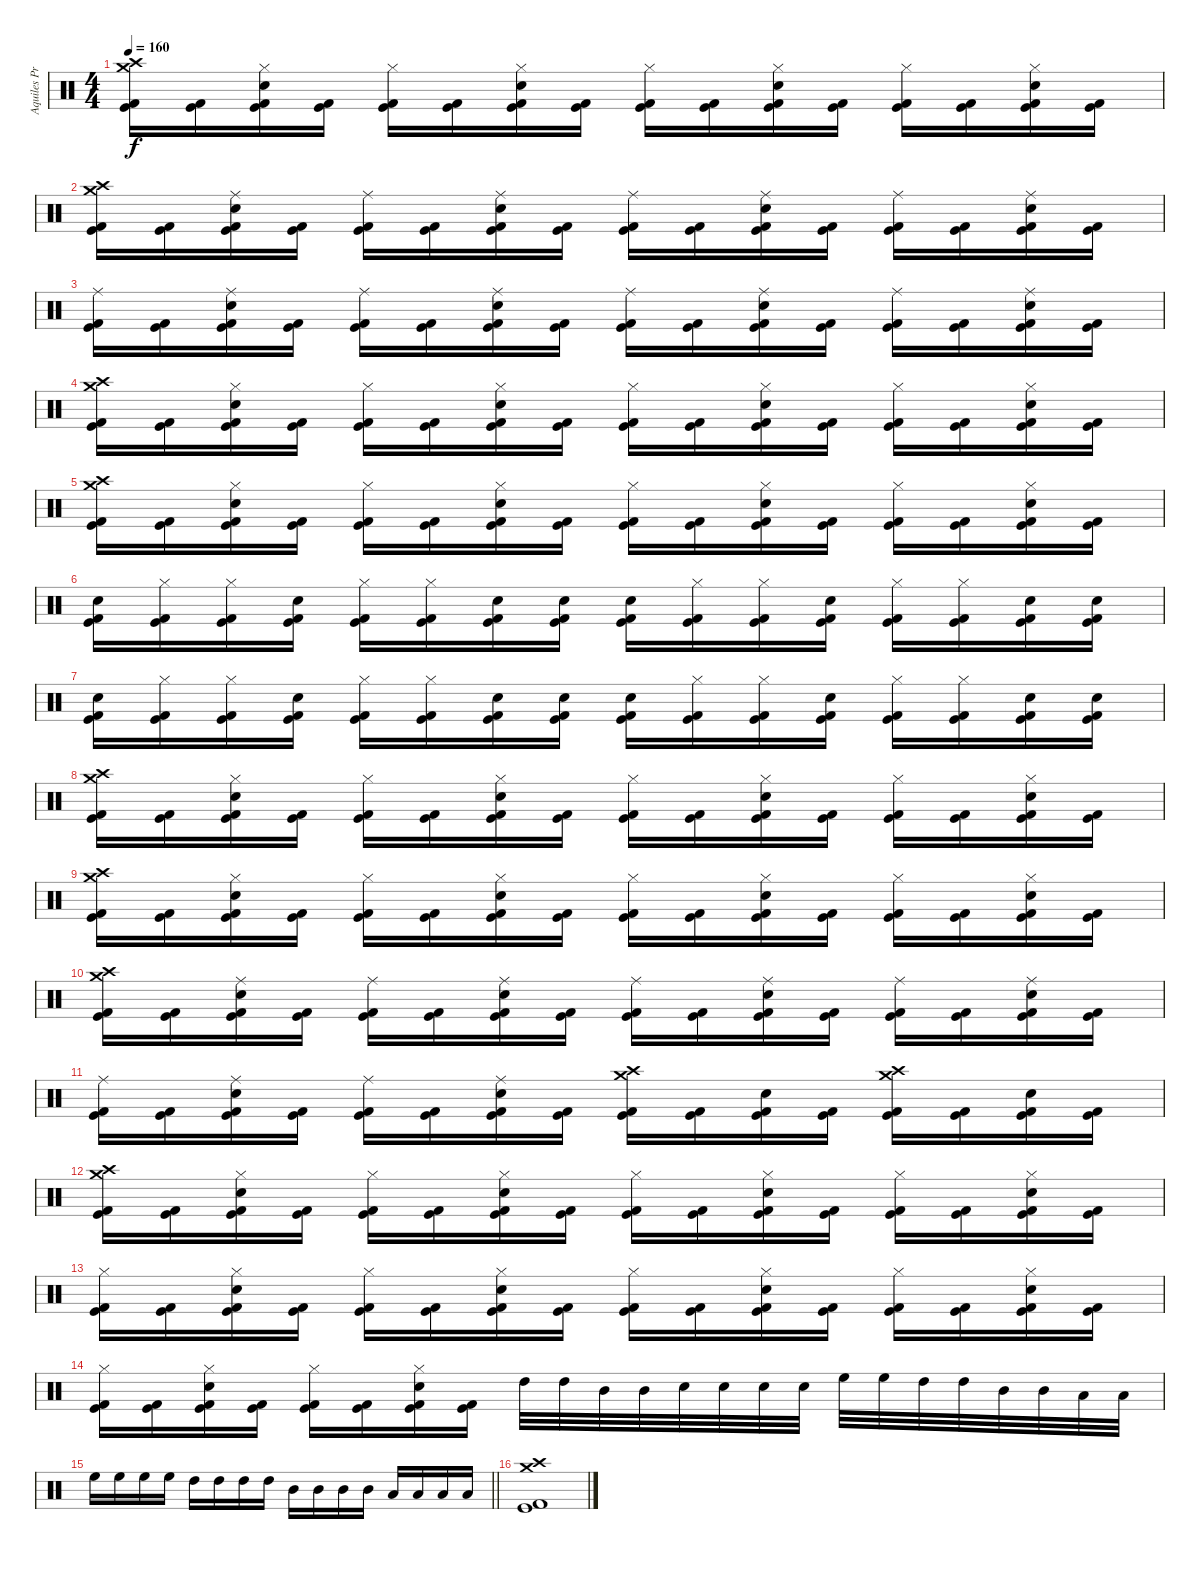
\track ("Aquiles Priester" "Aquiles Pr") {instrument percussion}
\staff {score}
\articulation defaults
\ts (4 4)
\tempo 160
\clef neutral
\ks c
("Crash medium (hit)" "Crash high (hit)" "Kick (hit) 2" "Kick (hit)").16{dy f} ("Kick (hit) 2" "Kick (hit)").16 ("Hi-Hat (closed)" "Electric Snare (hit)" "Kick (hit) 2" "Kick (hit)").16 ("Kick (hit) 2" "Kick (hit)").16 ("Hi-Hat (closed)" "Kick (hit) 2" "Kick (hit)").16 ("Kick (hit) 2" "Kick (hit)").16 ("Hi-Hat (closed)" "Electric Snare (hit)" "Kick (hit) 2" "Kick (hit)").16 ("Kick (hit) 2" "Kick (hit)").16 ("Hi-Hat (closed)" "Kick (hit) 2" "Kick (hit)").16 ("Kick (hit) 2" "Kick (hit)").16 ("Hi-Hat (closed)" "Electric Snare (hit)" "Kick (hit) 2" "Kick (hit)").16 ("Kick (hit) 2" "Kick (hit)").16 ("Hi-Hat (closed)" "Kick (hit) 2" "Kick (hit)").16 ("Kick (hit) 2" "Kick (hit)").16 ("Hi-Hat (closed)" "Electric Snare (hit)" "Kick (hit) 2" "Kick (hit)").16 ("Kick (hit) 2" "Kick (hit)").16 |
("Crash medium (hit)" "Crash high (hit)" "Kick (hit) 2" "Kick (hit)").16 ("Kick (hit) 2" "Kick (hit)").16 ("Ride (middle)" "Electric Snare (hit)" "Kick (hit) 2" "Kick (hit)").16 ("Kick (hit) 2" "Kick (hit)").16 ("Ride (middle)" "Kick (hit) 2" "Kick (hit)").16 ("Kick (hit) 2" "Kick (hit)").16 ("Ride (middle)" "Electric Snare (hit)" "Kick (hit) 2" "Kick (hit)").16 ("Kick (hit) 2" "Kick (hit)").16 ("Ride (middle)" "Kick (hit) 2" "Kick (hit)").16 ("Kick (hit) 2" "Kick (hit)").16 ("Ride (middle)" "Electric Snare (hit)" "Kick (hit) 2" "Kick (hit)").16 ("Kick (hit) 2" "Kick (hit)").16 ("Ride (middle)" "Kick (hit) 2" "Kick (hit)").16 ("Kick (hit) 2" "Kick (hit)").16 ("Ride (middle)" "Electric Snare (hit)" "Kick (hit) 2" "Kick (hit)").16 ("Kick (hit) 2" "Kick (hit)").16 |
("Ride (middle)" "Kick (hit) 2" "Kick (hit)").16 ("Kick (hit) 2" "Kick (hit)").16 ("Ride (middle)" "Electric Snare (hit)" "Kick (hit) 2" "Kick (hit)").16 ("Kick (hit) 2" "Kick (hit)").16 ("Ride (middle)" "Kick (hit) 2" "Kick (hit)").16 ("Kick (hit) 2" "Kick (hit)").16 ("Ride (middle)" "Electric Snare (hit)" "Kick (hit) 2" "Kick (hit)").16 ("Kick (hit) 2" "Kick (hit)").16 ("Ride (middle)" "Kick (hit) 2" "Kick (hit)").16 ("Kick (hit) 2" "Kick (hit)").16 ("Ride (middle)" "Electric Snare (hit)" "Kick (hit) 2" "Kick (hit)").16 ("Kick (hit) 2" "Kick (hit)").16 ("Ride (middle)" "Kick (hit) 2" "Kick (hit)").16 ("Kick (hit) 2" "Kick (hit)").16 ("Ride (middle)" "Electric Snare (hit)" "Kick (hit) 2" "Kick (hit)").16 ("Kick (hit) 2" "Kick (hit)").16 |
("Crash medium (hit)" "Crash high (hit)" "Kick (hit) 2" "Kick (hit)").16 ("Kick (hit) 2" "Kick (hit)").16 ("Hi-Hat (closed)" "Electric Snare (hit)" "Kick (hit) 2" "Kick (hit)").16 ("Kick (hit) 2" "Kick (hit)").16 ("Hi-Hat (closed)" "Kick (hit) 2" "Kick (hit)").16 ("Kick (hit) 2" "Kick (hit)").16 ("Hi-Hat (closed)" "Electric Snare (hit)" "Kick (hit) 2" "Kick (hit)").16 ("Kick (hit) 2" "Kick (hit)").16 ("Hi-Hat (closed)" "Kick (hit) 2" "Kick (hit)").16 ("Kick (hit) 2" "Kick (hit)").16 ("Hi-Hat (closed)" "Electric Snare (hit)" "Kick (hit) 2" "Kick (hit)").16 ("Kick (hit) 2" "Kick (hit)").16 ("Hi-Hat (closed)" "Kick (hit) 2" "Kick (hit)").16 ("Kick (hit) 2" "Kick (hit)").16 ("Hi-Hat (closed)" "Electric Snare (hit)" "Kick (hit) 2" "Kick (hit)").16 ("Kick (hit) 2" "Kick (hit)").16 |
("Crash medium (hit)" "Crash high (hit)" "Kick (hit) 2" "Kick (hit)").16 ("Kick (hit) 2" "Kick (hit)").16 ("Hi-Hat (closed)" "Electric Snare (hit)" "Kick (hit) 2" "Kick (hit)").16 ("Kick (hit) 2" "Kick (hit)").16 ("Hi-Hat (closed)" "Kick (hit) 2" "Kick (hit)").16 ("Kick (hit) 2" "Kick (hit)").16 ("Hi-Hat (closed)" "Electric Snare (hit)" "Kick (hit) 2" "Kick (hit)").16 ("Kick (hit) 2" "Kick (hit)").16 ("Hi-Hat (closed)" "Kick (hit) 2" "Kick (hit)").16 ("Kick (hit) 2" "Kick (hit)").16 ("Hi-Hat (closed)" "Electric Snare (hit)" "Kick (hit) 2" "Kick (hit)").16 ("Kick (hit) 2" "Kick (hit)").16 ("Hi-Hat (closed)" "Kick (hit) 2" "Kick (hit)").16 ("Kick (hit) 2" "Kick (hit)").16 ("Hi-Hat (closed)" "Electric Snare (hit)" "Kick (hit) 2" "Kick (hit)").16 ("Kick (hit) 2" "Kick (hit)").16 |
("Electric Snare (hit)" "Kick (hit) 2" "Kick (hit)").16 ("Hi-Hat (closed)" "Kick (hit) 2" "Kick (hit)").16 ("Hi-Hat (closed)" "Kick (hit) 2" "Kick (hit)").16 ("Electric Snare (hit)" "Kick (hit) 2" "Kick (hit)").16 ("Hi-Hat (closed)" "Kick (hit) 2" "Kick (hit)").16 ("Hi-Hat (closed)" "Kick (hit) 2" "Kick (hit)").16 ("Electric Snare (hit)" "Kick (hit) 2" "Kick (hit)").16 ("Electric Snare (hit)" "Kick (hit) 2" "Kick (hit)").16 ("Electric Snare (hit)" "Kick (hit) 2" "Kick (hit)").16 ("Hi-Hat (closed)" "Kick (hit) 2" "Kick (hit)").16 ("Hi-Hat (closed)" "Kick (hit) 2" "Kick (hit)").16 ("Electric Snare (hit)" "Kick (hit) 2" "Kick (hit)").16 ("Hi-Hat (closed)" "Kick (hit) 2" "Kick (hit)").16 ("Hi-Hat (closed)" "Kick (hit) 2" "Kick (hit)").16 ("Electric Snare (hit)" "Kick (hit) 2" "Kick (hit)").16 ("Electric Snare (hit)" "Kick (hit) 2" "Kick (hit)").16 |
("Electric Snare (hit)" "Kick (hit) 2" "Kick (hit)").16 ("Hi-Hat (closed)" "Kick (hit) 2" "Kick (hit)").16 ("Hi-Hat (closed)" "Kick (hit) 2" "Kick (hit)").16 ("Electric Snare (hit)" "Kick (hit) 2" "Kick (hit)").16 ("Hi-Hat (closed)" "Kick (hit) 2" "Kick (hit)").16 ("Hi-Hat (closed)" "Kick (hit) 2" "Kick (hit)").16 ("Electric Snare (hit)" "Kick (hit) 2" "Kick (hit)").16 ("Electric Snare (hit)" "Kick (hit) 2" "Kick (hit)").16 ("Electric Snare (hit)" "Kick (hit) 2" "Kick (hit)").16 ("Hi-Hat (closed)" "Kick (hit) 2" "Kick (hit)").16 ("Hi-Hat (closed)" "Kick (hit) 2" "Kick (hit)").16 ("Electric Snare (hit)" "Kick (hit) 2" "Kick (hit)").16 ("Hi-Hat (closed)" "Kick (hit) 2" "Kick (hit)").16 ("Hi-Hat (closed)" "Kick (hit) 2" "Kick (hit)").16 ("Electric Snare (hit)" "Kick (hit) 2" "Kick (hit)").16 ("Electric Snare (hit)" "Kick (hit) 2" "Kick (hit)").16 |
("Crash medium (hit)" "Crash high (hit)" "Kick (hit) 2" "Kick (hit)").16 ("Kick (hit) 2" "Kick (hit)").16 ("Hi-Hat (closed)" "Electric Snare (hit)" "Kick (hit) 2" "Kick (hit)").16 ("Kick (hit) 2" "Kick (hit)").16 ("Hi-Hat (closed)" "Kick (hit) 2" "Kick (hit)").16 ("Kick (hit) 2" "Kick (hit)").16 ("Hi-Hat (closed)" "Electric Snare (hit)" "Kick (hit) 2" "Kick (hit)").16 ("Kick (hit) 2" "Kick (hit)").16 ("Hi-Hat (closed)" "Kick (hit) 2" "Kick (hit)").16 ("Kick (hit) 2" "Kick (hit)").16 ("Hi-Hat (closed)" "Electric Snare (hit)" "Kick (hit) 2" "Kick (hit)").16 ("Kick (hit) 2" "Kick (hit)").16 ("Hi-Hat (closed)" "Kick (hit) 2" "Kick (hit)").16 ("Kick (hit) 2" "Kick (hit)").16 ("Hi-Hat (closed)" "Electric Snare (hit)" "Kick (hit) 2" "Kick (hit)").16 ("Kick (hit) 2" "Kick (hit)").16 |
("Crash medium (hit)" "Crash high (hit)" "Kick (hit) 2" "Kick (hit)").16 ("Kick (hit) 2" "Kick (hit)").16 ("Hi-Hat (closed)" "Electric Snare (hit)" "Kick (hit) 2" "Kick (hit)").16 ("Kick (hit) 2" "Kick (hit)").16 ("Hi-Hat (closed)" "Kick (hit) 2" "Kick (hit)").16 ("Kick (hit) 2" "Kick (hit)").16 ("Hi-Hat (closed)" "Electric Snare (hit)" "Kick (hit) 2" "Kick (hit)").16 ("Kick (hit) 2" "Kick (hit)").16 ("Hi-Hat (closed)" "Kick (hit) 2" "Kick (hit)").16 ("Kick (hit) 2" "Kick (hit)").16 ("Hi-Hat (closed)" "Electric Snare (hit)" "Kick (hit) 2" "Kick (hit)").16 ("Kick (hit) 2" "Kick (hit)").16 ("Hi-Hat (closed)" "Kick (hit) 2" "Kick (hit)").16 ("Kick (hit) 2" "Kick (hit)").16 ("Hi-Hat (closed)" "Electric Snare (hit)" "Kick (hit) 2" "Kick (hit)").16 ("Kick (hit) 2" "Kick (hit)").16 |
("Crash medium (hit)" "Crash high (hit)" "Kick (hit) 2" "Kick (hit)").16 ("Kick (hit) 2" "Kick (hit)").16 ("Ride (middle)" "Electric Snare (hit)" "Kick (hit) 2" "Kick (hit)").16 ("Kick (hit) 2" "Kick (hit)").16 ("Ride (middle)" "Kick (hit) 2" "Kick (hit)").16 ("Kick (hit) 2" "Kick (hit)").16 ("Ride (middle)" "Electric Snare (hit)" "Kick (hit) 2" "Kick (hit)").16 ("Kick (hit) 2" "Kick (hit)").16 ("Ride (middle)" "Kick (hit) 2" "Kick (hit)").16 ("Kick (hit) 2" "Kick (hit)").16 ("Ride (middle)" "Electric Snare (hit)" "Kick (hit) 2" "Kick (hit)").16 ("Kick (hit) 2" "Kick (hit)").16 ("Ride (middle)" "Kick (hit) 2" "Kick (hit)").16 ("Kick (hit) 2" "Kick (hit)").16 ("Ride (middle)" "Electric Snare (hit)" "Kick (hit) 2" "Kick (hit)").16 ("Kick (hit) 2" "Kick (hit)").16 |
("Ride (middle)" "Kick (hit) 2" "Kick (hit)").16 ("Kick (hit) 2" "Kick (hit)").16 ("Ride (middle)" "Electric Snare (hit)" "Kick (hit) 2" "Kick (hit)").16 ("Kick (hit) 2" "Kick (hit)").16 ("Ride (middle)" "Kick (hit) 2" "Kick (hit)").16 ("Kick (hit) 2" "Kick (hit)").16 ("Ride (middle)" "Electric Snare (hit)" "Kick (hit) 2" "Kick (hit)").16 ("Kick (hit) 2" "Kick (hit)").16 ("Crash medium (hit)" "Crash high (hit)" "Kick (hit) 2" "Kick (hit)").16 ("Kick (hit) 2" "Kick (hit)").16 ("Electric Snare (hit)" "Kick (hit) 2" "Kick (hit)").16 ("Kick (hit) 2" "Kick (hit)").16 ("Crash medium (hit)" "Crash high (hit)" "Kick (hit) 2" "Kick (hit)").16 ("Kick (hit) 2" "Kick (hit)").16 ("Electric Snare (hit)" "Kick (hit) 2" "Kick (hit)").16 ("Kick (hit) 2" "Kick (hit)").16 |
("Crash medium (hit)" "Crash high (hit)" "Kick (hit) 2" "Kick (hit)").16 ("Kick (hit) 2" "Kick (hit)").16 ("Hi-Hat (closed)" "Electric Snare (hit)" "Kick (hit) 2" "Kick (hit)").16 ("Kick (hit) 2" "Kick (hit)").16 ("Hi-Hat (closed)" "Kick (hit) 2" "Kick (hit)").16 ("Kick (hit) 2" "Kick (hit)").16 ("Hi-Hat (closed)" "Electric Snare (hit)" "Kick (hit) 2" "Kick (hit)").16 ("Kick (hit) 2" "Kick (hit)").16 ("Hi-Hat (closed)" "Kick (hit) 2" "Kick (hit)").16 ("Kick (hit) 2" "Kick (hit)").16 ("Hi-Hat (closed)" "Electric Snare (hit)" "Kick (hit) 2" "Kick (hit)").16 ("Kick (hit) 2" "Kick (hit)").16 ("Hi-Hat (closed)" "Kick (hit) 2" "Kick (hit)").16 ("Kick (hit) 2" "Kick (hit)").16 ("Hi-Hat (closed)" "Electric Snare (hit)" "Kick (hit) 2" "Kick (hit)").16 ("Kick (hit) 2" "Kick (hit)").16 |
("Hi-Hat (closed)" "Kick (hit) 2" "Kick (hit)").16 ("Kick (hit) 2" "Kick (hit)").16 ("Hi-Hat (closed)" "Electric Snare (hit)" "Kick (hit) 2" "Kick (hit)").16 ("Kick (hit) 2" "Kick (hit)").16 ("Hi-Hat (closed)" "Kick (hit) 2" "Kick (hit)").16 ("Kick (hit) 2" "Kick (hit)").16 ("Hi-Hat (closed)" "Electric Snare (hit)" "Kick (hit) 2" "Kick (hit)").16 ("Kick (hit) 2" "Kick (hit)").16 ("Hi-Hat (closed)" "Kick (hit) 2" "Kick (hit)").16 ("Kick (hit) 2" "Kick (hit)").16 ("Hi-Hat (closed)" "Electric Snare (hit)" "Kick (hit) 2" "Kick (hit)").16 ("Kick (hit) 2" "Kick (hit)").16 ("Hi-Hat (closed)" "Kick (hit) 2" "Kick (hit)").16 ("Kick (hit) 2" "Kick (hit)").16 ("Hi-Hat (closed)" "Electric Snare (hit)" "Kick (hit) 2" "Kick (hit)").16 ("Kick (hit) 2" "Kick (hit)").16 |
("Hi-Hat (closed)" "Kick (hit) 2" "Kick (hit)").16 ("Kick (hit) 2" "Kick (hit)").16 ("Hi-Hat (closed)" "Electric Snare (hit)" "Kick (hit) 2" "Kick (hit)").16 ("Kick (hit) 2" "Kick (hit)").16 ("Hi-Hat (closed)" "Kick (hit) 2" "Kick (hit)").16 ("Kick (hit) 2" "Kick (hit)").16 ("Hi-Hat (closed)" "Electric Snare (hit)" "Kick (hit) 2" "Kick (hit)").16 ("Kick (hit) 2" "Kick (hit)").16 "High Tom (hit)".32 "High Tom (hit)".32 "Mid Tom (hit)".32 "Mid Tom (hit)".32 "Electric Snare (hit)".32 "Electric Snare (hit)".32 "Electric Snare (hit)".32 "Electric Snare (hit)".32 "High Floor Tom (hit)".32 "High Floor Tom (hit)".32 "High Tom (hit)".32 "High Tom (hit)".32 "Mid Tom (hit)".32 "Mid Tom (hit)".32 "Low Tom (hit)".32 "Low Tom (hit)".32 |
\barLineRight lightlight "High Floor Tom (hit)".16 "High Floor Tom (hit)".16 "High Floor Tom (hit)".16 "High Floor Tom (hit)".16 "High Tom (hit)".16 "High Tom (hit)".16 "High Tom (hit)".16 "High Tom (hit)".16 "Mid Tom (hit)".16 "Mid Tom (hit)".16 "Mid Tom (hit)".16 "Mid Tom (hit)".16 "Low Tom (hit)".16 "Low Tom (hit)".16 "Low Tom (hit)".16 "Low Tom (hit)".16
|
("Crash medium (hit)" "Crash high (hit)" "Kick (hit) 2" "Kick (hit)").1
